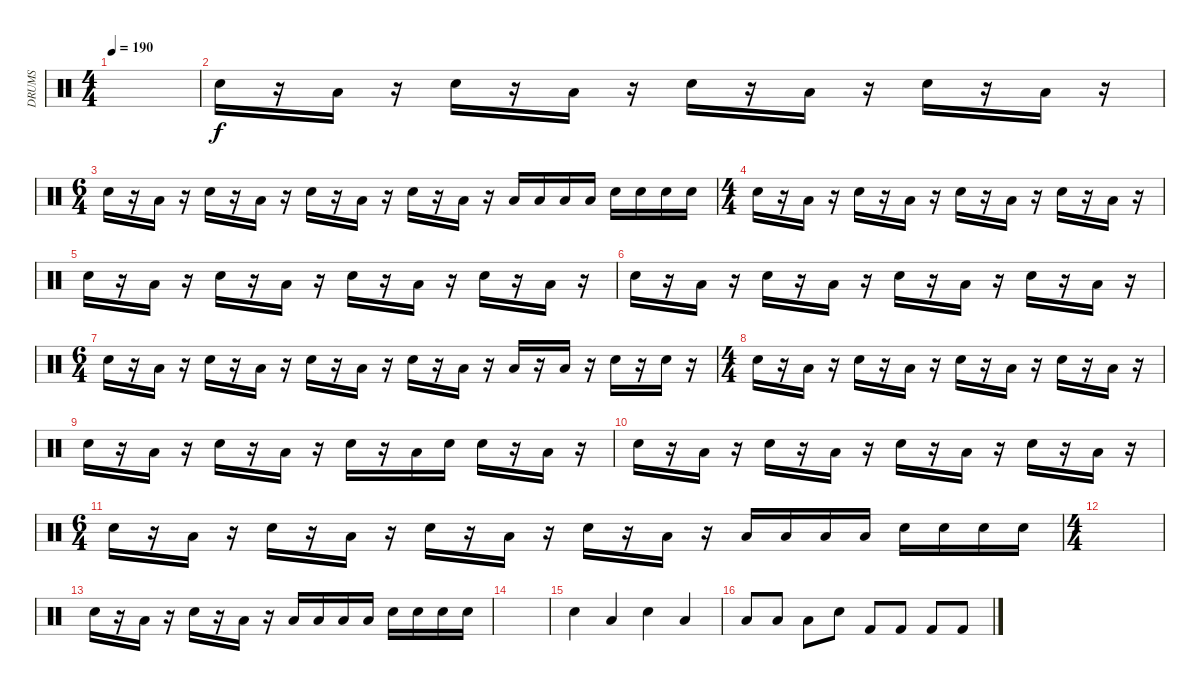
\track ("DRUMS" "DRUMS") {instrument percussion}
\staff {score}
\articulation defaults
\ts (4 4)
\tempo 190
\clef neutral
\ks c
|
"Electric Snare (hit)".16 r.16 "Low Tom (hit)".16 r.16 "Electric Snare (hit)".16 r.16 "Low Tom (hit)".16 r.16 "Electric Snare (hit)".16 r.16 "Low Tom (hit)".16 r.16 "Electric Snare (hit)".16 r.16 "Low Tom (hit)".16 r.16 |
\ts (6 4)
"Electric Snare (hit)".16 r.16 "Low Tom (hit)".16 r.16 "Electric Snare (hit)".16 r.16 "Low Tom (hit)".16 r.16 "Electric Snare (hit)".16 r.16 "Low Tom (hit)".16 r.16 "Electric Snare (hit)".16 r.16 "Low Tom (hit)".16 r.16 "Low Tom (hit)".16 "Low Tom (hit)".16 "Low Tom (hit)".16 "Low Tom (hit)".16 "Electric Snare (hit)".16 "Electric Snare (hit)".16 "Electric Snare (hit)".16 "Electric Snare (hit)".16 |
\ts (4 4)
"Electric Snare (hit)".16 r.16 "Low Tom (hit)".16 r.16 "Electric Snare (hit)".16 r.16 "Low Tom (hit)".16 r.16 "Electric Snare (hit)".16 r.16 "Low Tom (hit)".16 r.16 "Electric Snare (hit)".16 r.16 "Low Tom (hit)".16 r.16 |
"Electric Snare (hit)".16 r.16 "Low Tom (hit)".16 r.16 "Electric Snare (hit)".16 r.16 "Low Tom (hit)".16 r.16 "Electric Snare (hit)".16 r.16 "Low Tom (hit)".16 r.16 "Electric Snare (hit)".16 r.16 "Low Tom (hit)".16 r.16 |
"Electric Snare (hit)".16 r.16 "Low Tom (hit)".16 r.16 "Electric Snare (hit)".16 r.16 "Low Tom (hit)".16 r.16 "Electric Snare (hit)".16 r.16 "Low Tom (hit)".16 r.16 "Electric Snare (hit)".16 r.16 "Low Tom (hit)".16 r.16 |
\ts (6 4)
"Electric Snare (hit)".16 r.16 "Low Tom (hit)".16 r.16 "Electric Snare (hit)".16 r.16 "Low Tom (hit)".16 r.16 "Electric Snare (hit)".16 r.16 "Low Tom (hit)".16 r.16 "Electric Snare (hit)".16 r.16 "Low Tom (hit)".16 r.16 "Low Tom (hit)".16 r.16 "Low Tom (hit)".16 r.16 "Electric Snare (hit)".16 r.16 "Electric Snare (hit)".16 r.16 |
\ts (4 4)
"Electric Snare (hit)".16 r.16 "Low Tom (hit)".16 r.16 "Electric Snare (hit)".16 r.16 "Low Tom (hit)".16 r.16 "Electric Snare (hit)".16 r.16 "Low Tom (hit)".16 r.16 "Electric Snare (hit)".16 r.16 "Low Tom (hit)".16 r.16 |
"Electric Snare (hit)".16 r.16 "Low Tom (hit)".16 r.16 "Electric Snare (hit)".16 r.16 "Low Tom (hit)".16 r.16 "Electric Snare (hit)".16 r.16 "Low Tom (hit)".16 "Electric Snare (hit)".16 "Electric Snare (hit)".16 r.16 "Low Tom (hit)".16 r.16 |
"Electric Snare (hit)".16 r.16 "Low Tom (hit)".16 r.16 "Electric Snare (hit)".16 r.16 "Low Tom (hit)".16 r.16 "Electric Snare (hit)".16 r.16 "Low Tom (hit)".16 r.16 "Electric Snare (hit)".16 r.16 "Low Tom (hit)".16 r.16 |
\ts (6 4)
"Electric Snare (hit)".16 r.16 "Low Tom (hit)".16 r.16 "Electric Snare (hit)".16 r.16 "Low Tom (hit)".16 r.16 "Electric Snare (hit)".16 r.16 "Low Tom (hit)".16 r.16 "Electric Snare (hit)".16 r.16 "Low Tom (hit)".16 r.16 "Low Tom (hit)".16 "Low Tom (hit)".16 "Low Tom (hit)".16 "Low Tom (hit)".16 "Electric Snare (hit)".16 "Electric Snare (hit)".16 "Electric Snare (hit)".16 "Electric Snare (hit)".16 |
\ts (4 4)
|
"Electric Snare (hit)".16 r.16 "Low Tom (hit)".16 r.16 "Electric Snare (hit)".16 r.16 "Low Tom (hit)".16 r.16 "Low Tom (hit)".16 "Low Tom (hit)".16 "Low Tom (hit)".16 "Low Tom (hit)".16 "Electric Snare (hit)".16 "Electric Snare (hit)".16 "Electric Snare (hit)".16 "Electric Snare (hit)".16 |
|
"Electric Snare (hit)".4 "Low Tom (hit)".4 "Electric Snare (hit)".4 "Low Tom (hit)".4 |
"Low Tom (hit)".8 "Low Tom (hit)".8 "Low Tom (hit)".8 "Electric Snare (hit)".8 "Kick (hit) 2".8 "Kick (hit) 2".8 "Kick (hit) 2".8 "Kick (hit) 2".8
